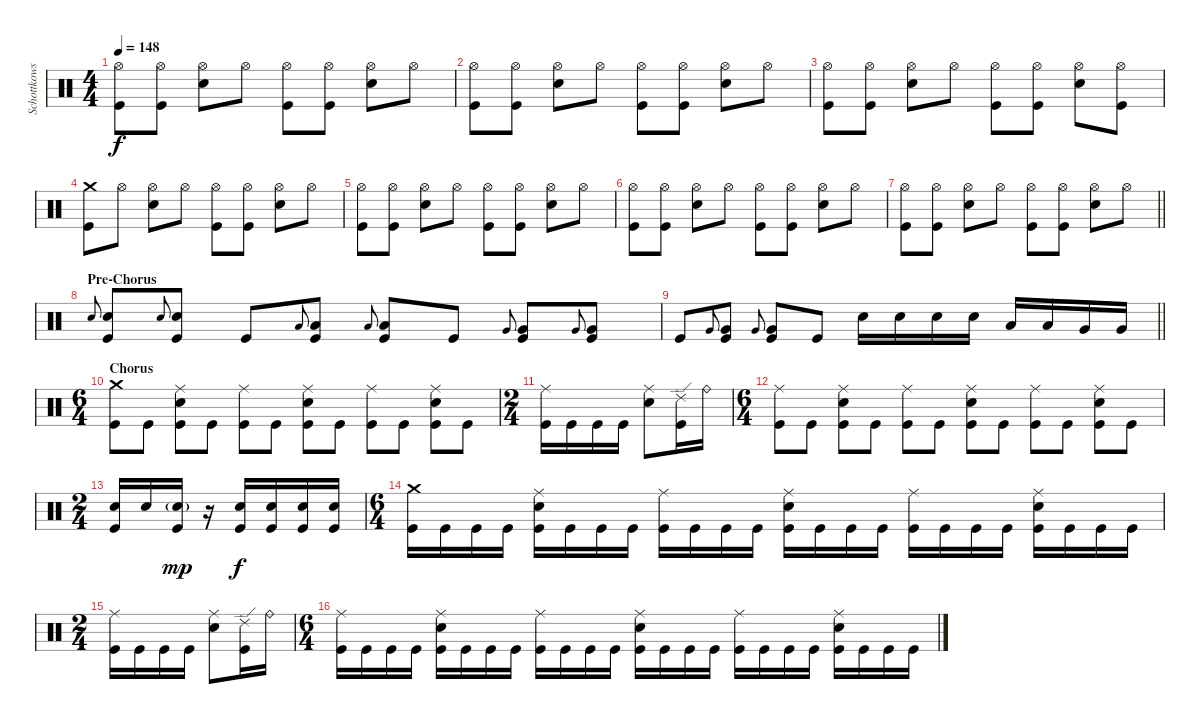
\track ("Schottkowski" "Schottkows") {instrument percussion}
\staff {score}
\articulation defaults
\ts (4 4)
\tempo 148
\clef neutral
\ks c
("Hi-Hat (open)" "Kick (hit)").8{dy f} ("Hi-Hat (open)" "Kick (hit)").8 ("Hi-Hat (open)" "Electric Snare (hit)").8 "Hi-Hat (open)".8 ("Hi-Hat (open)" "Kick (hit)").8 ("Hi-Hat (open)" "Kick (hit)").8 ("Hi-Hat (open)" "Electric Snare (hit)").8 "Hi-Hat (open)".8 |
("Hi-Hat (open)" "Kick (hit)").8 ("Hi-Hat (open)" "Kick (hit)").8 ("Hi-Hat (open)" "Electric Snare (hit)").8 "Hi-Hat (open)".8 ("Hi-Hat (open)" "Kick (hit)").8 ("Hi-Hat (open)" "Kick (hit)").8 ("Hi-Hat (open)" "Electric Snare (hit)").8 "Hi-Hat (open)".8 |
("Hi-Hat (open)" "Kick (hit)").8 ("Hi-Hat (open)" "Kick (hit)").8 ("Hi-Hat (open)" "Electric Snare (hit)").8 "Hi-Hat (open)".8 ("Hi-Hat (open)" "Kick (hit)").8 ("Hi-Hat (open)" "Kick (hit)").8 ("Hi-Hat (open)" "Electric Snare (hit)").8 ("Hi-Hat (open)" "Kick (hit)").8 |
("Crash medium (hit)" "Kick (hit)").8 "Hi-Hat (open)".8 ("Hi-Hat (open)" "Electric Snare (hit)").8 "Hi-Hat (open)".8 ("Hi-Hat (open)" "Kick (hit)").8 ("Hi-Hat (open)" "Kick (hit)").8 ("Hi-Hat (open)" "Electric Snare (hit)").8 "Hi-Hat (open)".8 |
("Hi-Hat (open)" "Kick (hit)").8 ("Hi-Hat (open)" "Kick (hit)").8 ("Hi-Hat (open)" "Electric Snare (hit)").8 "Hi-Hat (open)".8 ("Hi-Hat (open)" "Kick (hit)").8 ("Hi-Hat (open)" "Kick (hit)").8 ("Hi-Hat (open)" "Electric Snare (hit)").8 "Hi-Hat (open)".8 |
("Hi-Hat (open)" "Kick (hit)").8 ("Hi-Hat (open)" "Kick (hit)").8 ("Hi-Hat (open)" "Electric Snare (hit)").8 "Hi-Hat (open)".8 ("Hi-Hat (open)" "Kick (hit)").8 ("Hi-Hat (open)" "Kick (hit)").8 ("Hi-Hat (open)" "Electric Snare (hit)").8 "Hi-Hat (open)".8 |
\barLineRight lightlight
("Hi-Hat (open)" "Kick (hit)").8 ("Hi-Hat (open)" "Kick (hit)").8 ("Hi-Hat (open)" "Electric Snare (hit)").8 "Hi-Hat (open)".8 ("Hi-Hat (open)" "Kick (hit)").8 ("Hi-Hat (open)" "Kick (hit)").8 ("Hi-Hat (open)" "Electric Snare (hit)").8 "Hi-Hat (open)".8 |
\section ("" "Pre-Chorus")
"Electric Snare (hit)".8{gr onbeat} ("Electric Snare (hit)" "Kick (hit)").8 "Electric Snare (hit)".8{gr onbeat} ("Electric Snare (hit)" "Kick (hit)").8 "Kick (hit)".8 "Low Tom (hit)".8{gr onbeat} ("Low Tom (hit)" "Kick (hit)").8 "Low Tom (hit)".8{gr onbeat} ("Low Tom (hit)" "Kick (hit)").8 "Kick (hit)".8 "Very Low Tom (hit)".8{gr onbeat} ("Very Low Tom (hit)" "Kick (hit)").8 "Very Low Tom (hit)".8{gr onbeat} ("Very Low Tom (hit)" "Kick (hit)").8 |
\barLineRight lightlight "Kick (hit)".8 "Very Low Tom (hit)".8{gr onbeat}
("Very Low Tom (hit)" "Kick (hit)").8 "Very Low Tom (hit)".8{gr onbeat} ("Very Low Tom (hit)" "Kick (hit)").8 "Kick (hit)".8 "Electric Snare (hit)".16 "Electric Snare (hit)".16 "Electric Snare (hit)".16 "Electric Snare (hit)".16 "Low Tom (hit)".16 "Low Tom (hit)".16 "Very Low Tom (hit)".16 "Very Low Tom (hit)".16 |
\ts (6 4)
\section ("" "Chorus")
("Crash medium (hit)" "Kick (hit)").8 "Kick (hit)".8 ("Ride (middle)" "Electric Snare (hit)" "Kick (hit)").8 "Kick (hit)".8 ("Ride (middle)" "Kick (hit)").8 "Kick (hit)".8 ("Ride (middle)" "Electric Snare (hit)" "Kick (hit)").8 "Kick (hit)".8 ("Ride (middle)" "Kick (hit)").8 "Kick (hit)".8 ("Ride (middle)" "Electric Snare (hit)" "Kick (hit)").8 "Kick (hit)".8 |
\ts (2 4)
("Ride (middle)" "Kick (hit)").16 "Kick (hit)".16 "Kick (hit)".16 "Kick (hit)".16 ("Ride (middle)" "Electric Snare (hit)").8 ("Ride (edge) 2" "Kick (hit)").16 "Ride (bell)".16 |
\ts (6 4)
("Ride (middle)" "Kick (hit)").8 "Kick (hit)".8 ("Ride (middle)" "Electric Snare (hit)" "Kick (hit)").8 "Kick (hit)".8 ("Ride (middle)" "Kick (hit)").8 "Kick (hit)".8 ("Ride (middle)" "Electric Snare (hit)" "Kick (hit)").8 "Kick (hit)".8 ("Ride (middle)" "Kick (hit)").8 "Kick (hit)".8 ("Ride (middle)" "Electric Snare (hit)" "Kick (hit)").8 "Kick (hit)".8 |
\ts (2 4)
("Electric Snare (hit)" "Kick (hit)").16 "Electric Snare (hit)".16 ("Electric Snare (hit)"{g} "Kick (hit)").16{dy mp} r.16 ("Electric Snare (hit)" "Kick (hit)").16{dy f} ("Electric Snare (hit)" "Kick (hit)").16 ("Electric Snare (hit)" "Kick (hit)").16 ("Electric Snare (hit)" "Kick (hit)").16 |
\ts (6 4)
("Crash medium (hit)" "Kick (hit)").16 "Kick (hit)".16 "Kick (hit)".16 "Kick (hit)".16 ("Ride (middle)" "Electric Snare (hit)" "Kick (hit)").16 "Kick (hit)".16 "Kick (hit)".16 "Kick (hit)".16 ("Ride (middle)" "Kick (hit)").16 "Kick (hit)".16 "Kick (hit)".16 "Kick (hit)".16 ("Ride (middle)" "Electric Snare (hit)" "Kick (hit)").16 "Kick (hit)".16 "Kick (hit)".16 "Kick (hit)".16 ("Ride (middle)" "Kick (hit)").16 "Kick (hit)".16 "Kick (hit)".16 "Kick (hit)".16 ("Ride (middle)" "Electric Snare (hit)" "Kick (hit)").16 "Kick (hit)".16 "Kick (hit)".16 "Kick (hit)".16 |
\ts (2 4)
("Ride (middle)" "Kick (hit)").16 "Kick (hit)".16 "Kick (hit)".16 "Kick (hit)".16 ("Ride (middle)" "Electric Snare (hit)").8 ("Ride (edge) 2" "Kick (hit)").16 "Ride (bell)".16 |
\ts (6 4)
("Ride (middle)" "Kick (hit)").16 "Kick (hit)".16 "Kick (hit)".16 "Kick (hit)".16 ("Ride (middle)" "Electric Snare (hit)" "Kick (hit)").16 "Kick (hit)".16 "Kick (hit)".16 "Kick (hit)".16 ("Ride (middle)" "Kick (hit)").16 "Kick (hit)".16 "Kick (hit)".16 "Kick (hit)".16 ("Ride (middle)" "Electric Snare (hit)" "Kick (hit)").16 "Kick (hit)".16 "Kick (hit)".16 "Kick (hit)".16 ("Ride (middle)" "Kick (hit)").16 "Kick (hit)".16 "Kick (hit)".16 "Kick (hit)".16 ("Ride (middle)" "Electric Snare (hit)" "Kick (hit)").16 "Kick (hit)".16 "Kick (hit)".16 "Kick (hit)".16
